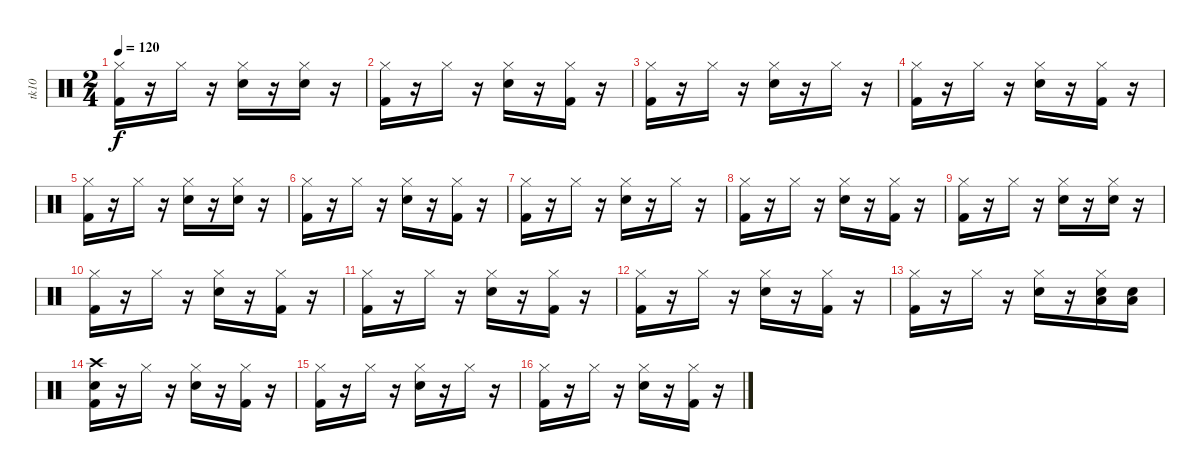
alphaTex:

\track ("tk10" "tk10") {instrument percussion}
\staff {score}
\articulation defaults
\ts (2 4)
\tempo 120
\clef neutral
\ks c
("Kick (hit) 2" "Hi-Hat (closed)").16{dy f} r.16 "Hi-Hat (closed)".16 r.16 ("Hi-Hat (closed)" "Snare (hit) 2").16 r.16 ("Snare (hit) 2" "Hi-Hat (closed)").16 r.16 |
("Kick (hit) 2" "Hi-Hat (closed)").16 r.16 "Hi-Hat (closed)".16 r.16 ("Hi-Hat (closed)" "Snare (hit) 2").16 r.16 ("Hi-Hat (closed)" "Kick (hit) 2").16 r.16 |
("Kick (hit) 2" "Hi-Hat (closed)").16 r.16 "Hi-Hat (closed)".16 r.16 ("Snare (hit) 2" "Hi-Hat (closed)").16 r.16 "Hi-Hat (closed)".16 r.16 |
("Kick (hit) 2" "Hi-Hat (closed)").16 r.16 "Hi-Hat (closed)".16 r.16 ("Hi-Hat (closed)" "Snare (hit) 2").16 r.16 ("Hi-Hat (closed)" "Kick (hit) 2").16 r.16 |
("Hi-Hat (closed)" "Kick (hit) 2").16 r.16 "Hi-Hat (closed)".16 r.16 ("Snare (hit) 2" "Hi-Hat (closed)").16 r.16 ("Hi-Hat (closed)" "Snare (hit) 2").16 r.16 |
("Kick (hit) 2" "Hi-Hat (closed)").16 r.16 "Hi-Hat (closed)".16 r.16 ("Snare (hit) 2" "Hi-Hat (closed)").16 r.16 ("Kick (hit) 2" "Hi-Hat (closed)").16 r.16 |
("Hi-Hat (closed)" "Kick (hit) 2").16 r.16 "Hi-Hat (closed)".16 r.16 ("Hi-Hat (closed)" "Snare (hit) 2").16 r.16 "Hi-Hat (closed)".16 r.16 |
("Hi-Hat (closed)" "Kick (hit) 2").16 r.16 "Hi-Hat (closed)".16 r.16 ("Hi-Hat (closed)" "Snare (hit) 2").16 r.16 ("Hi-Hat (closed)" "Kick (hit) 2").16 r.16 |
("Hi-Hat (closed)" "Kick (hit) 2").16 r.16 "Hi-Hat (closed)".16 r.16 ("Hi-Hat (closed)" "Snare (hit) 2").16 r.16 ("Hi-Hat (closed)" "Snare (hit) 2").16 r.16 |
("Hi-Hat (closed)" "Kick (hit) 2").16 r.16 "Hi-Hat (closed)".16 r.16 ("Hi-Hat (closed)" "Snare (hit) 2").16 r.16 ("Hi-Hat (closed)" "Kick (hit) 2").16 r.16 |
("Kick (hit) 2" "Hi-Hat (closed)").16 r.16 "Hi-Hat (closed)".16 r.16 ("Snare (hit) 2" "Hi-Hat (closed)").16 r.16 ("Kick (hit) 2" "Hi-Hat (closed)").16 r.16 |
("Kick (hit) 2" "Hi-Hat (closed)").16 r.16 "Hi-Hat (closed)".16 r.16 ("Snare (hit) 2" "Hi-Hat (closed)").16 r.16 ("Hi-Hat (closed)" "Kick (hit) 2").16 r.16 |
("Kick (hit) 2" "Hi-Hat (closed)").16 r.16 "Hi-Hat (closed)".16 r.16 ("Hi-Hat (closed)" "Snare (hit) 2").16 r.16 ("Snare (hit) 2" "Hi-Hat (closed)" "Low Floor Tom (hit)").16 ("Snare (hit)" "Low Floor Tom (hit)").16 |
("Snare (hit)" "Crash high (hit)" "Kick (hit) 2").16 r.16 "Hi-Hat (closed)".16 r.16 ("Hi-Hat (closed)" "Snare (hit) 2").16 r.16 ("Hi-Hat (closed)" "Kick (hit) 2").16 r.16 |
("Hi-Hat (closed)" "Kick (hit) 2").16 r.16 "Hi-Hat (closed)".16 r.16 ("Hi-Hat (closed)" "Snare (hit) 2").16 r.16 "Hi-Hat (closed)".16 r.16 |
("Kick (hit) 2" "Hi-Hat (closed)").16 r.16 "Hi-Hat (closed)".16 r.16 ("Hi-Hat (closed)" "Snare (hit) 2").16 r.16 ("Kick (hit) 2" "Hi-Hat (closed)").16 r.16
